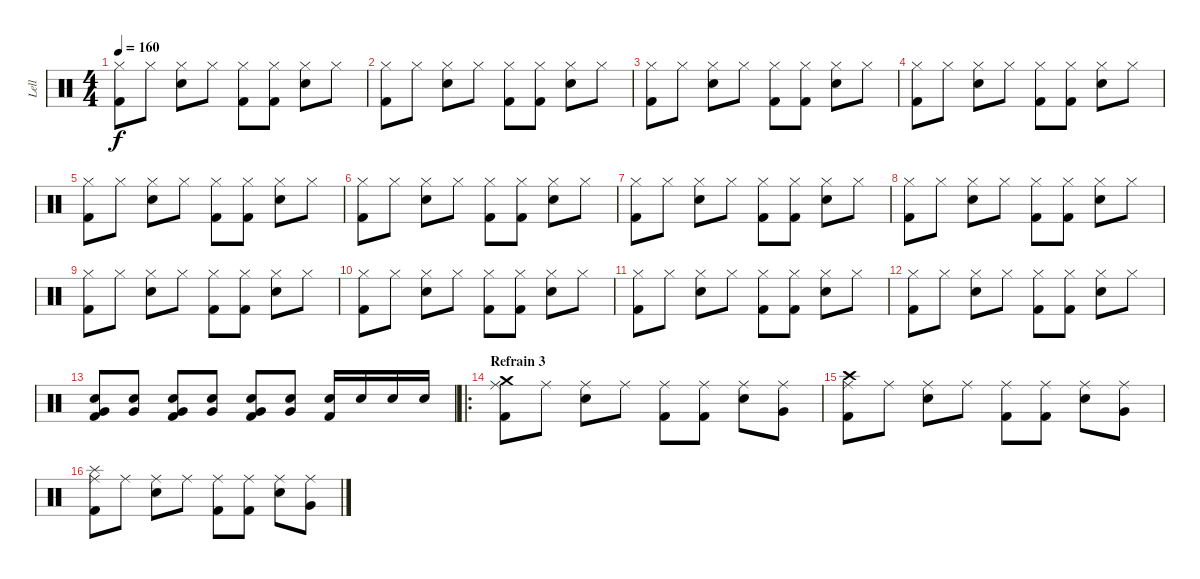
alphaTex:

\track ("Lell" "Lell") {instrument percussion}
\staff {score}
\articulation defaults
\ts (4 4)
\tempo 160
\clef neutral
\ks c
("Hi-Hat (closed)" "Kick (hit) 2").8{dy f} "Hi-Hat (closed)".8 ("Hi-Hat (closed)" "Snare (hit) 2").8 "Hi-Hat (closed)".8 ("Hi-Hat (closed)" "Kick (hit) 2").8 ("Hi-Hat (closed)" "Kick (hit) 2").8 ("Hi-Hat (closed)" "Snare (hit) 2").8 "Hi-Hat (closed)".8 |
("Hi-Hat (closed)" "Kick (hit) 2").8 "Hi-Hat (closed)".8 ("Hi-Hat (closed)" "Snare (hit) 2").8 "Hi-Hat (closed)".8 ("Hi-Hat (closed)" "Kick (hit) 2").8 ("Hi-Hat (closed)" "Kick (hit) 2").8 ("Hi-Hat (closed)" "Snare (hit) 2").8 "Hi-Hat (closed)".8 |
("Hi-Hat (closed)" "Kick (hit) 2").8 "Hi-Hat (closed)".8 ("Hi-Hat (closed)" "Snare (hit) 2").8 "Hi-Hat (closed)".8 ("Hi-Hat (closed)" "Kick (hit) 2").8 ("Hi-Hat (closed)" "Kick (hit) 2").8 ("Hi-Hat (closed)" "Snare (hit) 2").8 "Hi-Hat (closed)".8 |
("Hi-Hat (closed)" "Kick (hit) 2").8 "Hi-Hat (closed)".8 ("Hi-Hat (closed)" "Snare (hit) 2").8 "Hi-Hat (closed)".8 ("Hi-Hat (closed)" "Kick (hit) 2").8 ("Hi-Hat (closed)" "Kick (hit) 2").8 ("Hi-Hat (closed)" "Snare (hit) 2").8 "Hi-Hat (closed)".8 |
("Hi-Hat (closed)" "Kick (hit) 2").8 "Hi-Hat (closed)".8 ("Hi-Hat (closed)" "Snare (hit) 2").8 "Hi-Hat (closed)".8 ("Hi-Hat (closed)" "Kick (hit) 2").8 ("Hi-Hat (closed)" "Kick (hit) 2").8 ("Hi-Hat (closed)" "Snare (hit) 2").8 "Hi-Hat (closed)".8 |
("Hi-Hat (closed)" "Kick (hit) 2").8 "Hi-Hat (closed)".8 ("Hi-Hat (closed)" "Snare (hit) 2").8 "Hi-Hat (closed)".8 ("Hi-Hat (closed)" "Kick (hit) 2").8 ("Hi-Hat (closed)" "Kick (hit) 2").8 ("Hi-Hat (closed)" "Snare (hit) 2").8 "Hi-Hat (closed)".8 |
("Hi-Hat (closed)" "Kick (hit) 2").8 "Hi-Hat (closed)".8 ("Hi-Hat (closed)" "Snare (hit) 2").8 "Hi-Hat (closed)".8 ("Hi-Hat (closed)" "Kick (hit) 2").8 ("Hi-Hat (closed)" "Kick (hit) 2").8 ("Hi-Hat (closed)" "Snare (hit) 2").8 "Hi-Hat (closed)".8 |
("Hi-Hat (closed)" "Kick (hit) 2").8 "Hi-Hat (closed)".8 ("Hi-Hat (closed)" "Snare (hit) 2").8 "Hi-Hat (closed)".8 ("Hi-Hat (closed)" "Kick (hit) 2").8 ("Hi-Hat (closed)" "Kick (hit) 2").8 ("Hi-Hat (closed)" "Snare (hit) 2").8 "Hi-Hat (closed)".8 |
("Hi-Hat (closed)" "Kick (hit) 2").8 "Hi-Hat (closed)".8 ("Hi-Hat (closed)" "Snare (hit) 2").8 "Hi-Hat (closed)".8 ("Hi-Hat (closed)" "Kick (hit) 2").8 ("Hi-Hat (closed)" "Kick (hit) 2").8 ("Hi-Hat (closed)" "Snare (hit) 2").8 "Hi-Hat (closed)".8 |
("Hi-Hat (closed)" "Kick (hit) 2").8 "Hi-Hat (closed)".8 ("Hi-Hat (closed)" "Snare (hit) 2").8 "Hi-Hat (closed)".8 ("Hi-Hat (closed)" "Kick (hit) 2").8 ("Hi-Hat (closed)" "Kick (hit) 2").8 ("Hi-Hat (closed)" "Snare (hit) 2").8 "Hi-Hat (closed)".8 |
("Hi-Hat (closed)" "Kick (hit) 2").8 "Hi-Hat (closed)".8 ("Hi-Hat (closed)" "Snare (hit) 2").8 "Hi-Hat (closed)".8 ("Hi-Hat (closed)" "Kick (hit) 2").8 ("Hi-Hat (closed)" "Kick (hit) 2").8 ("Hi-Hat (closed)" "Snare (hit) 2").8 "Hi-Hat (closed)".8 |
("Hi-Hat (closed)" "Kick (hit) 2").8 "Hi-Hat (closed)".8 ("Hi-Hat (closed)" "Snare (hit) 2").8 "Hi-Hat (closed)".8 ("Hi-Hat (closed)" "Kick (hit) 2").8 ("Hi-Hat (closed)" "Kick (hit) 2").8 ("Hi-Hat (closed)" "Snare (hit) 2").8 "Hi-Hat (closed)".8 |
("Very Low Tom (hit)" "Snare (hit) 2" "Kick (hit) 2").8 ("Very Low Tom (hit)" "Snare (hit) 2").8 ("Very Low Tom (hit)" "Snare (hit) 2" "Kick (hit) 2").8 ("Very Low Tom (hit)" "Snare (hit) 2").8 ("Very Low Tom (hit)" "Snare (hit) 2" "Kick (hit) 2").8 ("Very Low Tom (hit)" "Snare (hit) 2").8 ("Snare (hit) 2" "Kick (hit) 2").16 "Snare (hit) 2".16 "Snare (hit) 2".16 "Snare (hit) 2".16 |
\ro
\section ("" "Refrain 3")
("Crash medium (hit)" "Ride (middle)" "Kick (hit) 2").8 "Ride (middle)".8 ("Ride (middle)" "Snare (hit) 2").8 "Ride (middle)".8 ("Ride (middle)" "Kick (hit) 2").8 ("Ride (middle)" "Kick (hit) 2").8 ("Ride (middle)" "Snare (hit) 2").8 ("Ride (middle)" "Very Low Tom (hit)").8 |
("Crash high (hit)" "Ride (middle)" "Kick (hit) 2").8 "Ride (middle)".8 ("Ride (middle)" "Snare (hit) 2").8 "Ride (middle)".8 ("Ride (middle)" "Kick (hit) 2").8 ("Ride (middle)" "Kick (hit) 2").8 ("Ride (middle)" "Snare (hit) 2").8 ("Ride (middle)" "Very Low Tom (hit)").8 |
("Splash (hit)" "Ride (middle)" "Kick (hit) 2").8 "Ride (middle)".8 ("Ride (middle)" "Snare (hit) 2").8 "Ride (middle)".8 ("Ride (middle)" "Kick (hit) 2").8 ("Ride (middle)" "Kick (hit) 2").8 ("Ride (middle)" "Snare (hit) 2").8 ("Ride (middle)" "Very Low Tom (hit)").8
